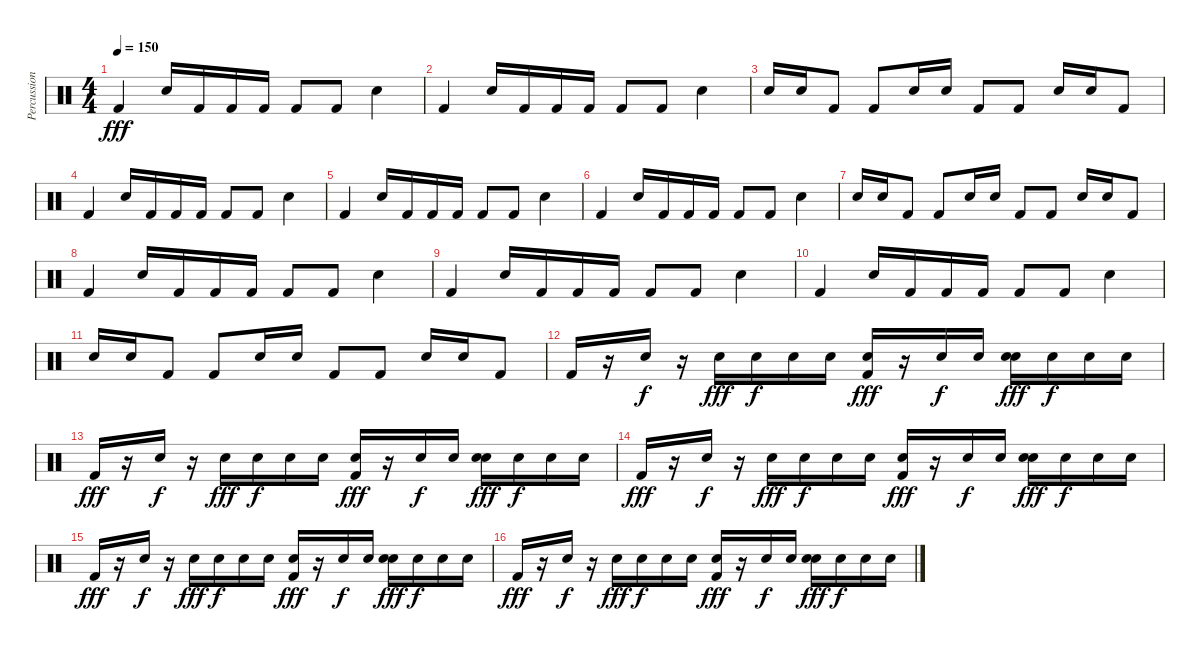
\track ("Percussions" "Percussion") {instrument percussion}
\staff {score}
\articulation defaults
\ts (4 4)
\tempo 150
\clef neutral
\ks c "Kick (hit) 2".4{dy fff} "Snare (hit) 2".16 "Kick (hit) 2".16 "Kick (hit) 2".16 "Kick (hit) 2".16 "Kick (hit) 2".8 "Kick (hit) 2".8 "Snare (hit) 2".4
|
"Kick (hit) 2".4 "Snare (hit) 2".16 "Kick (hit) 2".16 "Kick (hit) 2".16 "Kick (hit) 2".16 "Kick (hit) 2".8 "Kick (hit) 2".8 "Snare (hit) 2".4 |
"Snare (hit) 2".16 "Snare (hit) 2".16 "Kick (hit) 2".8 "Kick (hit) 2".8 "Snare (hit) 2".16 "Snare (hit) 2".16 "Kick (hit) 2".8 "Kick (hit) 2".8 "Snare (hit) 2".16 "Snare (hit) 2".16 "Kick (hit) 2".8 |
"Kick (hit) 2".4 "Snare (hit) 2".16 "Kick (hit) 2".16 "Kick (hit) 2".16 "Kick (hit) 2".16 "Kick (hit) 2".8 "Kick (hit) 2".8 "Snare (hit) 2".4 |
"Kick (hit) 2".4 "Snare (hit) 2".16 "Kick (hit) 2".16 "Kick (hit) 2".16 "Kick (hit) 2".16 "Kick (hit) 2".8 "Kick (hit) 2".8 "Snare (hit) 2".4 |
"Kick (hit) 2".4 "Snare (hit) 2".16 "Kick (hit) 2".16 "Kick (hit) 2".16 "Kick (hit) 2".16 "Kick (hit) 2".8 "Kick (hit) 2".8 "Snare (hit) 2".4 |
"Snare (hit) 2".16 "Snare (hit) 2".16 "Kick (hit) 2".8 "Kick (hit) 2".8 "Snare (hit) 2".16 "Snare (hit) 2".16 "Kick (hit) 2".8 "Kick (hit) 2".8 "Snare (hit) 2".16 "Snare (hit) 2".16 "Kick (hit) 2".8 |
"Kick (hit) 2".4 "Snare (hit) 2".16 "Kick (hit) 2".16 "Kick (hit) 2".16 "Kick (hit) 2".16 "Kick (hit) 2".8 "Kick (hit) 2".8 "Snare (hit) 2".4 |
"Kick (hit) 2".4 "Snare (hit) 2".16 "Kick (hit) 2".16 "Kick (hit) 2".16 "Kick (hit) 2".16 "Kick (hit) 2".8 "Kick (hit) 2".8 "Snare (hit) 2".4 |
"Kick (hit) 2".4 "Snare (hit) 2".16 "Kick (hit) 2".16 "Kick (hit) 2".16 "Kick (hit) 2".16 "Kick (hit) 2".8 "Kick (hit) 2".8 "Snare (hit) 2".4 |
"Snare (hit) 2".16 "Snare (hit) 2".16 "Kick (hit) 2".8 "Kick (hit) 2".8 "Snare (hit) 2".16 "Snare (hit) 2".16 "Kick (hit) 2".8 "Kick (hit) 2".8 "Snare (hit) 2".16 "Snare (hit) 2".16 "Kick (hit) 2".8 |
"Kick (hit) 2".16 r.16 "Hand Clap (hit)".16{dy f} r.16 "Snare (hit) 2".16{dy fff} "Hand Clap (hit)".16{dy f} "Hand Clap (hit)".16 "Hand Clap (hit)".16 ("Hand Clap (hit)" "Kick (hit) 2").16{dy fff} r.16 "Hand Clap (hit)".16{dy f} "Hand Clap (hit)".16 ("Hand Clap (hit)" "Snare (hit) 2").16{dy fff} "Hand Clap (hit)".16{dy f} "Hand Clap (hit)".16 "Hand Clap (hit)".16 |
"Kick (hit) 2".16{dy fff} r.16 "Hand Clap (hit)".16{dy f} r.16 "Snare (hit) 2".16{dy fff} "Hand Clap (hit)".16{dy f} "Hand Clap (hit)".16 "Hand Clap (hit)".16 ("Hand Clap (hit)" "Kick (hit) 2").16{dy fff} r.16 "Hand Clap (hit)".16{dy f} "Hand Clap (hit)".16 ("Hand Clap (hit)" "Snare (hit) 2").16{dy fff} "Hand Clap (hit)".16{dy f} "Hand Clap (hit)".16 "Hand Clap (hit)".16 |
"Kick (hit) 2".16{dy fff} r.16 "Hand Clap (hit)".16{dy f} r.16 "Snare (hit) 2".16{dy fff} "Hand Clap (hit)".16{dy f} "Hand Clap (hit)".16 "Hand Clap (hit)".16 ("Hand Clap (hit)" "Kick (hit) 2").16{dy fff} r.16 "Hand Clap (hit)".16{dy f} "Hand Clap (hit)".16 ("Hand Clap (hit)" "Snare (hit) 2").16{dy fff} "Hand Clap (hit)".16{dy f} "Hand Clap (hit)".16 "Hand Clap (hit)".16 |
"Kick (hit) 2".16{dy fff} r.16 "Hand Clap (hit)".16{dy f} r.16 "Snare (hit) 2".16{dy fff} "Hand Clap (hit)".16{dy f} "Hand Clap (hit)".16 "Hand Clap (hit)".16 ("Hand Clap (hit)" "Kick (hit) 2").16{dy fff} r.16 "Hand Clap (hit)".16{dy f} "Hand Clap (hit)".16 ("Hand Clap (hit)" "Snare (hit) 2").16{dy fff} "Hand Clap (hit)".16{dy f} "Hand Clap (hit)".16 "Hand Clap (hit)".16 |
"Kick (hit) 2".16{dy fff} r.16 "Hand Clap (hit)".16{dy f} r.16 "Snare (hit) 2".16{dy fff} "Hand Clap (hit)".16{dy f} "Hand Clap (hit)".16 "Hand Clap (hit)".16 ("Hand Clap (hit)" "Kick (hit) 2").16{dy fff} r.16 "Hand Clap (hit)".16{dy f} "Hand Clap (hit)".16 ("Hand Clap (hit)" "Snare (hit) 2").16{dy fff} "Hand Clap (hit)".16{dy f} "Hand Clap (hit)".16 "Hand Clap (hit)".16
